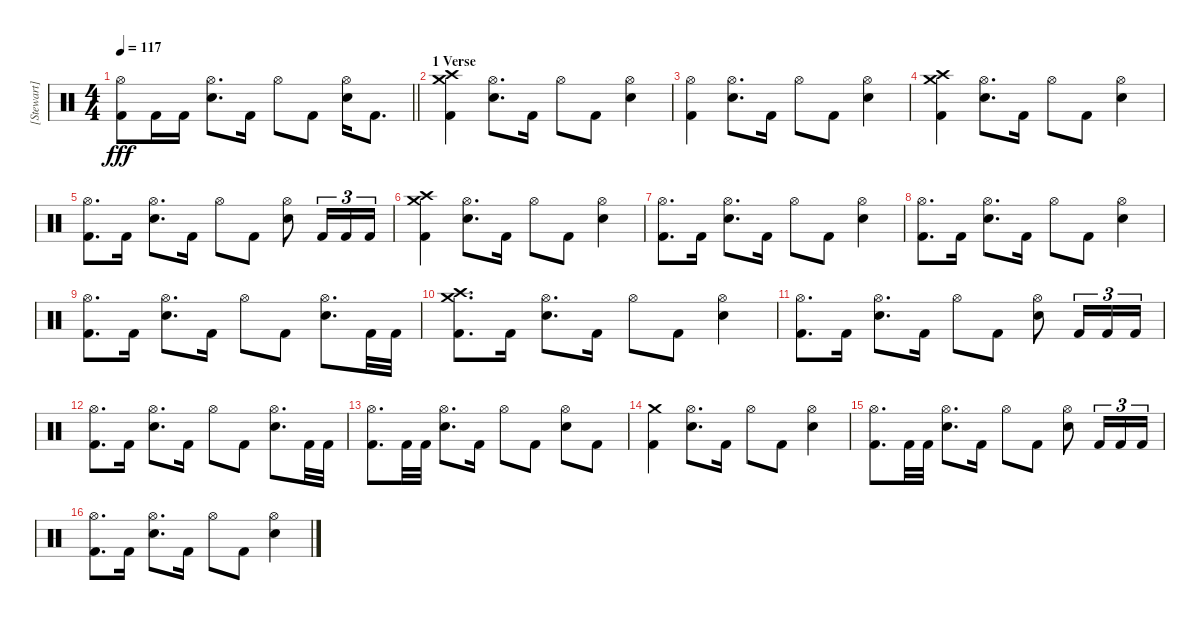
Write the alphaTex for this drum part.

\track ("[Stewart] Drums " "[Stewart] ") {instrument percussion}
\staff {score}
\articulation defaults
\ts (4 4)
\tempo 117
\clef neutral
\barLineRight lightlight
\ks c
("Hi-Hat (open)" "Kick (hit) 2").8{dy fff} "Kick (hit) 2".16 "Kick (hit) 2".16 ("Hi-Hat (open)" "Electric Snare (hit)").8{d} "Kick (hit) 2".16 "Hi-Hat (open)".8 "Kick (hit) 2".8 ("Hi-Hat (open)" "Electric Snare (hit)").16 "Kick (hit) 2".8{d} |
\section ("" "1 Verse ")
("Crash medium (hit)" "Crash high (hit)" "Kick (hit) 2").4 ("Hi-Hat (open)" "Electric Snare (hit)").8{d} "Kick (hit) 2".16 "Hi-Hat (open)".8 "Kick (hit) 2".8 ("Hi-Hat (open)" "Electric Snare (hit)").4 |
("Hi-Hat (open)" "Kick (hit) 2").4 ("Hi-Hat (open)" "Electric Snare (hit)").8{d} "Kick (hit) 2".16 "Hi-Hat (open)".8 "Kick (hit) 2".8 ("Hi-Hat (open)" "Electric Snare (hit)").4 |
("Crash medium (hit)" "Crash high (hit)" "Kick (hit) 2").4 ("Hi-Hat (open)" "Electric Snare (hit)").8{d} "Kick (hit) 2".16 "Hi-Hat (open)".8 "Kick (hit) 2".8 ("Hi-Hat (open)" "Electric Snare (hit)").4 |
("Hi-Hat (open)" "Kick (hit) 2").8{d} "Kick (hit) 2".16 ("Hi-Hat (open)" "Electric Snare (hit)").8{d} "Kick (hit) 2".16 "Hi-Hat (open)".8 "Kick (hit) 2".8 ("Hi-Hat (open)" "Electric Snare (hit)").8 "Kick (hit) 2".16{tu (3 2)} "Kick (hit) 2".16{tu (3 2)} "Kick (hit) 2".16{tu (3 2)} |
("Crash medium (hit)" "Crash high (hit)" "Kick (hit) 2").4 ("Hi-Hat (open)" "Electric Snare (hit)").8{d} "Kick (hit) 2".16 "Hi-Hat (open)".8 "Kick (hit) 2".8 ("Hi-Hat (open)" "Electric Snare (hit)").4 |
("Hi-Hat (open)" "Kick (hit) 2").8{d} "Kick (hit) 2".16 ("Hi-Hat (open)" "Electric Snare (hit)").8{d} "Kick (hit) 2".16 "Hi-Hat (open)".8 "Kick (hit) 2".8 ("Hi-Hat (open)" "Electric Snare (hit)").4 |
("Hi-Hat (open)" "Kick (hit) 2").8{d} "Kick (hit) 2".16 ("Hi-Hat (open)" "Electric Snare (hit)").8{d} "Kick (hit) 2".16 "Hi-Hat (open)".8 "Kick (hit) 2".8 ("Hi-Hat (open)" "Electric Snare (hit)").4 |
("Hi-Hat (open)" "Kick (hit) 2").8{d} "Kick (hit) 2".16 ("Hi-Hat (open)" "Electric Snare (hit)").8{d} "Kick (hit) 2".16 "Hi-Hat (open)".8 "Kick (hit) 2".8 ("Hi-Hat (open)" "Electric Snare (hit)").8{d} "Kick (hit) 2".32 "Kick (hit) 2".32 |
("Crash medium (hit)" "Crash high (hit)" "Kick (hit) 2").8{d} "Kick (hit) 2".16 ("Hi-Hat (open)" "Electric Snare (hit)").8{d} "Kick (hit) 2".16 "Hi-Hat (open)".8 "Kick (hit) 2".8 ("Hi-Hat (open)" "Electric Snare (hit)").4 |
("Hi-Hat (open)" "Kick (hit) 2").8{d} "Kick (hit) 2".16 ("Hi-Hat (open)" "Electric Snare (hit)").8{d} "Kick (hit) 2".16 "Hi-Hat (open)".8 "Kick (hit) 2".8 ("Hi-Hat (open)" "Electric Snare (hit)").8 "Kick (hit) 2".16{tu (3 2)} "Kick (hit) 2".16{tu (3 2)} "Kick (hit) 2".16{tu (3 2)} |
("Hi-Hat (open)" "Kick (hit) 2").8{d} "Kick (hit) 2".16 ("Hi-Hat (open)" "Electric Snare (hit)").8{d} "Kick (hit) 2".16 "Hi-Hat (open)".8 "Kick (hit) 2".8 ("Hi-Hat (open)" "Electric Snare (hit)").8{d} "Kick (hit) 2".32 "Kick (hit) 2".32 |
("Hi-Hat (open)" "Kick (hit) 2").8{d} "Kick (hit) 2".32 "Kick (hit) 2".32 ("Hi-Hat (open)" "Electric Snare (hit)").8{d} "Kick (hit) 2".16 "Hi-Hat (open)".8 "Kick (hit) 2".8 ("Hi-Hat (open)" "Electric Snare (hit)").8 "Kick (hit) 2".8 |
("Crash medium (hit)" "Kick (hit) 2").4 ("Hi-Hat (open)" "Electric Snare (hit)").8{d} "Kick (hit) 2".16 "Hi-Hat (open)".8 "Kick (hit) 2".8 ("Hi-Hat (open)" "Electric Snare (hit)").4 |
("Hi-Hat (open)" "Kick (hit) 2").8{d} "Kick (hit) 2".32 "Kick (hit) 2".32 ("Hi-Hat (open)" "Electric Snare (hit)").8{d} "Kick (hit) 2".16 "Hi-Hat (open)".8 "Kick (hit) 2".8 ("Hi-Hat (open)" "Electric Snare (hit)").8 "Kick (hit) 2".16{tu (3 2)} "Kick (hit) 2".16{tu (3 2)} "Kick (hit) 2".16{tu (3 2)} |
("Hi-Hat (open)" "Kick (hit) 2").8{d} "Kick (hit) 2".16 ("Hi-Hat (open)" "Electric Snare (hit)").8{d} "Kick (hit) 2".16 "Hi-Hat (open)".8 "Kick (hit) 2".8 ("Hi-Hat (open)" "Electric Snare (hit)").4
